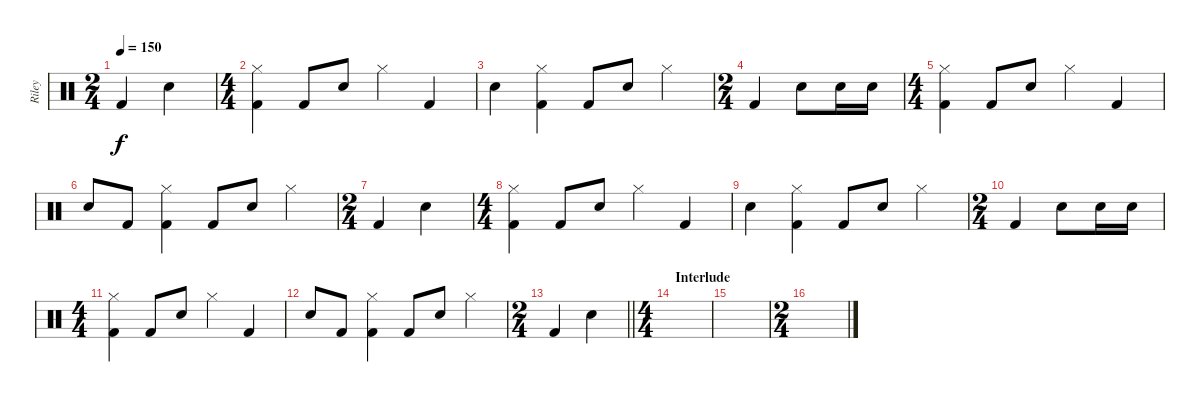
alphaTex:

\track ("Riley" "Riley") {instrument percussion}
\staff {score}
\articulation defaults
\ts (2 4)
\tempo 150
\clef neutral
\ks c "Kick (hit) 2".4{dy f} "Electric Snare (hit)".4
|
\ts (4 4)
("Hi-Hat (closed)" "Kick (hit) 2").4 "Kick (hit) 2".8 "Electric Snare (hit)".8 "Hi-Hat (closed)".4 "Kick (hit) 2".4 |
"Electric Snare (hit)".4 ("Hi-Hat (closed)" "Kick (hit) 2").4 "Kick (hit) 2".8 "Electric Snare (hit)".8 "Hi-Hat (closed)".4 |
\ts (2 4)
"Kick (hit) 2".4 "Electric Snare (hit)".8 "Electric Snare (hit)".16 "Electric Snare (hit)".16 |
\ts (4 4)
("Hi-Hat (closed)" "Kick (hit) 2").4 "Kick (hit) 2".8 "Electric Snare (hit)".8 "Hi-Hat (closed)".4 "Kick (hit) 2".4 |
"Electric Snare (hit)".8 "Kick (hit) 2".8 ("Hi-Hat (closed)" "Kick (hit) 2").4 "Kick (hit) 2".8 "Electric Snare (hit)".8 "Hi-Hat (closed)".4 |
\ts (2 4)
"Kick (hit) 2".4 "Electric Snare (hit)".4 |
\ts (4 4)
("Hi-Hat (closed)" "Kick (hit) 2").4 "Kick (hit) 2".8 "Electric Snare (hit)".8 "Hi-Hat (closed)".4 "Kick (hit) 2".4 |
"Electric Snare (hit)".4 ("Hi-Hat (closed)" "Kick (hit) 2").4 "Kick (hit) 2".8 "Electric Snare (hit)".8 "Hi-Hat (closed)".4 |
\ts (2 4)
"Kick (hit) 2".4 "Electric Snare (hit)".8 "Electric Snare (hit)".16 "Electric Snare (hit)".16 |
\ts (4 4)
("Hi-Hat (closed)" "Kick (hit) 2").4 "Kick (hit) 2".8 "Electric Snare (hit)".8 "Hi-Hat (closed)".4 "Kick (hit) 2".4 |
"Electric Snare (hit)".8 "Kick (hit) 2".8 ("Hi-Hat (closed)" "Kick (hit) 2").4 "Kick (hit) 2".8 "Electric Snare (hit)".8 "Hi-Hat (closed)".4 |
\ts (2 4)
\barLineRight lightlight "Kick (hit) 2".4 "Electric Snare (hit)".4
|
\ts (4 4)
\section ("" "Interlude")
|
|
\ts (2 4)
